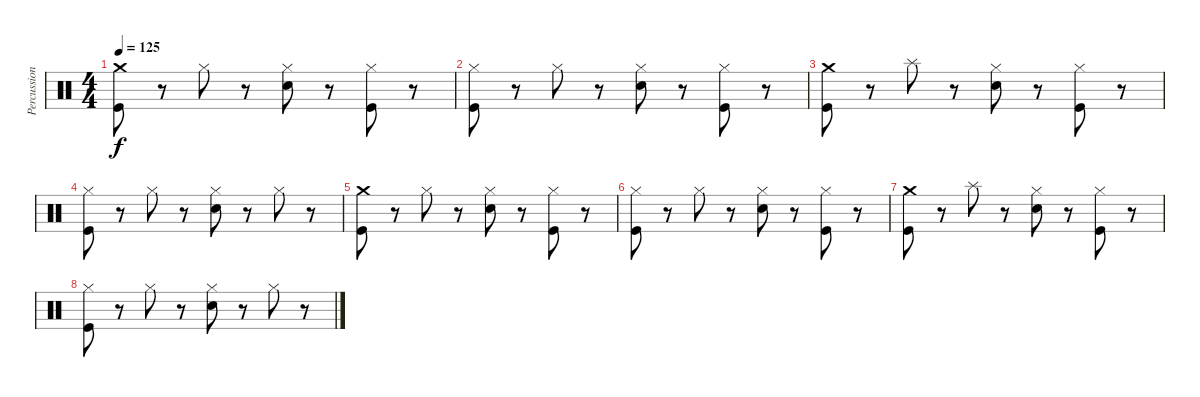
\track ("Percussion" "Percussion") {instrument percussion}
\staff {score}
\articulation defaults
\ts (4 4)
\tempo 125
\clef neutral
\ks c
("Crash medium (hit)" "Kick (hit)").8{dy f} r.8 "Hi-Hat (closed)".8 r.8 ("Hi-Hat (closed)" "Electric Snare (hit)").8 r.8 ("Hi-Hat (closed)" "Kick (hit)").8 r.8 |
("Hi-Hat (closed)" "Kick (hit)").8 r.8 "Hi-Hat (closed)".8 r.8 ("Hi-Hat (closed)" "Electric Snare (hit)").8 r.8 ("Hi-Hat (closed)" "Kick (hit)").8 r.8 |
("Crash medium (hit)" "Kick (hit)").8 r.8 "Splash (hit)".8 r.8 ("Hi-Hat (closed)" "Electric Snare (hit)").8 r.8 ("Hi-Hat (closed)" "Kick (hit)").8 r.8 |
("Hi-Hat (closed)" "Kick (hit)").8 r.8 "Hi-Hat (closed)".8 r.8 ("Hi-Hat (closed)" "Electric Snare (hit)").8 r.8 "Hi-Hat (closed)".8 r.8 |
("Crash medium (hit)" "Kick (hit)").8 r.8 "Hi-Hat (closed)".8 r.8 ("Hi-Hat (closed)" "Electric Snare (hit)").8 r.8 ("Hi-Hat (closed)" "Kick (hit)").8 r.8 |
("Hi-Hat (closed)" "Kick (hit)").8 r.8 "Hi-Hat (closed)".8 r.8 ("Hi-Hat (closed)" "Electric Snare (hit)").8 r.8 ("Hi-Hat (closed)" "Kick (hit)").8 r.8 |
("Crash medium (hit)" "Kick (hit)").8 r.8 "Splash (hit)".8 r.8 ("Hi-Hat (closed)" "Electric Snare (hit)").8 r.8 ("Hi-Hat (closed)" "Kick (hit)").8 r.8 |
("Hi-Hat (closed)" "Kick (hit)").8 r.8 "Hi-Hat (closed)".8 r.8 ("Hi-Hat (closed)" "Electric Snare (hit)").8 r.8 "Hi-Hat (closed)".8 r.8
